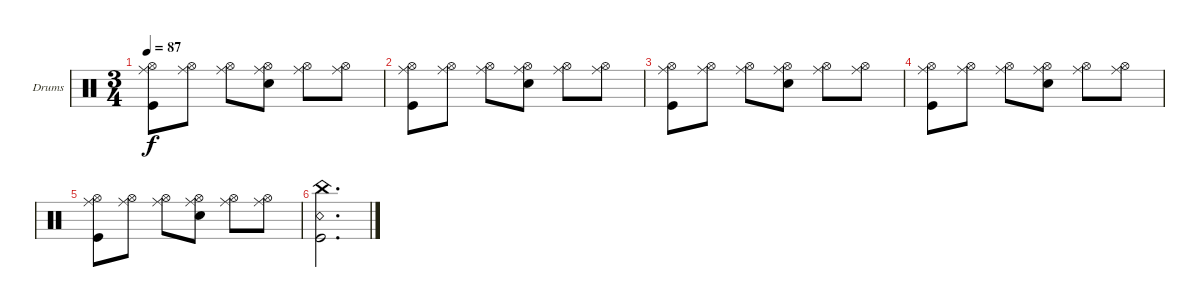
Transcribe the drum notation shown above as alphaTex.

\bracketExtendMode groupsimilarinstruments
\firstSystemTrackNameOrientation horizontal
\otherSystemsTrackNameOrientation horizontal
\track ("Drumkit" "Drums") {instrument percussion}
\staff {score}
\articulation defaults
\ts (3 4)
\tempo 87
\clef neutral
\ks c
("Ride (middle)" "Kick (hit)" "Hi-Hat (open)").8{dy f} ("Ride (middle)" "Hi-Hat (open)").8 ("Ride (middle)" "Hi-Hat (open)").8 ("Ride (middle)" "Snare (hit) 2" "Hi-Hat (open)").8 ("Ride (middle)" "Hi-Hat (open)").8 ("Ride (middle)" "Hi-Hat (open)").8 |
("Ride (middle)" "Kick (hit)" "Hi-Hat (open)").8 ("Ride (middle)" "Hi-Hat (open)").8 ("Ride (middle)" "Hi-Hat (open)").8 ("Ride (middle)" "Snare (hit) 2" "Hi-Hat (open)").8 ("Ride (middle)" "Hi-Hat (open)").8 ("Ride (middle)" "Hi-Hat (open)").8 |
("Ride (middle)" "Kick (hit)" "Hi-Hat (open)").8 ("Ride (middle)" "Hi-Hat (open)").8 ("Ride (middle)" "Hi-Hat (open)").8 ("Ride (middle)" "Snare (hit) 2" "Hi-Hat (open)").8 ("Ride (middle)" "Hi-Hat (open)").8 ("Ride (middle)" "Hi-Hat (open)").8 |
("Ride (middle)" "Kick (hit)" "Hi-Hat (open)").8 ("Ride (middle)" "Hi-Hat (open)").8 ("Ride (middle)" "Hi-Hat (open)").8 ("Ride (middle)" "Snare (hit) 2" "Hi-Hat (open)").8 ("Ride (middle)" "Hi-Hat (open)").8 ("Ride (middle)" "Hi-Hat (open)").8 |
("Ride (middle)" "Kick (hit)" "Hi-Hat (open)").8 ("Ride (middle)" "Hi-Hat (open)").8 ("Ride (middle)" "Hi-Hat (open)").8 ("Ride (middle)" "Snare (hit) 2" "Hi-Hat (open)").8 ("Ride (middle)" "Hi-Hat (open)").8 ("Ride (middle)" "Hi-Hat (open)").8 |
("Snare (rim shot)" "Kick (hit)" "China (hit)").2{d}
